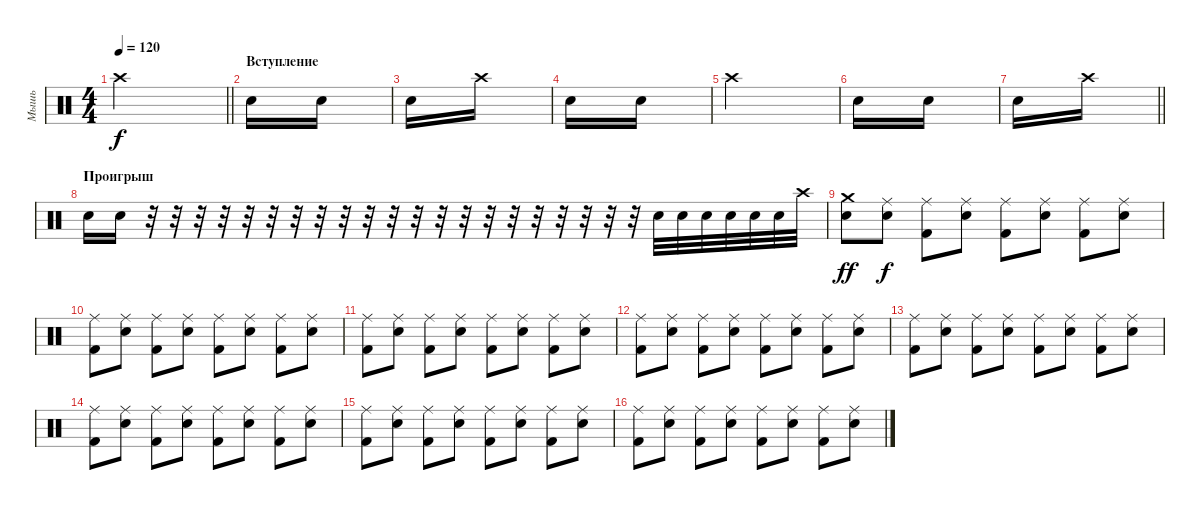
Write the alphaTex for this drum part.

\track ("Мышь" "Мышь") {instrument percussion}
\staff {score}
\articulation defaults
\ts (4 4)
\tempo 120
\clef neutral
\barLineRight lightlight
\ks c "Crash high (hit)".4{dy f}
|
\section ("" "Вступление")
"Snare (hit) 2".16 "Electric Snare (hit)".16 |
"Snare (hit) 2".16 "Crash high (hit)".16 |
"Electric Snare (hit)".16 "Electric Snare (hit)".16 |
"Crash high (hit)".4 |
"Snare (hit) 2".16 "Electric Snare (hit)".16 |
\barLineRight lightlight "Electric Snare (hit)".16 "Crash high (hit)".16
|
\section ("" "Проигрыш")
"Electric Snare (hit)".16 "Electric Snare (hit)".16 r.32 r.32 r.32 r.32 r.32 r.32 r.32 r.32 r.32 r.32 r.32 r.32 r.32 r.32 r.32 r.32 r.32 r.32 r.32 r.32 r.32 "Snare (hit) 2".32 "Snare (hit) 2".32 "Snare (hit) 2".32 "Electric Snare (hit)".32 "Electric Snare (hit)".32 "Electric Snare (hit)".32 "Crash high (hit)".32 |
("Snare (hit) 2" "Crash medium (hit)").8{dy ff} ("Snare (hit) 2" "Ride (middle)").8{dy f} ("Kick (hit) 2" "Ride (middle)").8 ("Snare (hit) 2" "Ride (middle)").8 ("Kick (hit) 2" "Ride (middle)").8 ("Snare (hit) 2" "Ride (middle)").8 ("Kick (hit) 2" "Ride (middle)").8 ("Snare (hit) 2" "Ride (middle)").8 |
("Kick (hit) 2" "Ride (middle)").8 ("Snare (hit) 2" "Ride (middle)").8 ("Kick (hit) 2" "Ride (middle)").8 ("Snare (hit) 2" "Ride (middle)").8 ("Kick (hit) 2" "Ride (middle)").8 ("Snare (hit) 2" "Ride (middle)").8 ("Kick (hit) 2" "Ride (middle)").8 ("Snare (hit) 2" "Ride (middle)").8 |
("Kick (hit) 2" "Ride (middle)").8 ("Snare (hit) 2" "Ride (middle)").8 ("Kick (hit) 2" "Ride (middle)").8 ("Snare (hit) 2" "Ride (middle)").8 ("Kick (hit) 2" "Ride (middle)").8 ("Snare (hit) 2" "Ride (middle)").8 ("Kick (hit) 2" "Ride (middle)").8 ("Snare (hit) 2" "Ride (middle)").8 |
("Kick (hit) 2" "Ride (middle)").8 ("Snare (hit) 2" "Ride (middle)").8 ("Kick (hit) 2" "Ride (middle)").8 ("Snare (hit) 2" "Ride (middle)").8 ("Kick (hit) 2" "Ride (middle)").8 ("Snare (hit) 2" "Ride (middle)").8 ("Kick (hit) 2" "Ride (middle)").8 ("Snare (hit) 2" "Ride (middle)").8 |
("Kick (hit) 2" "Ride (middle)").8 ("Snare (hit) 2" "Ride (middle)").8 ("Kick (hit) 2" "Ride (middle)").8 ("Snare (hit) 2" "Ride (middle)").8 ("Kick (hit) 2" "Ride (middle)").8 ("Snare (hit) 2" "Ride (middle)").8 ("Kick (hit) 2" "Ride (middle)").8 ("Snare (hit) 2" "Ride (middle)").8 |
("Kick (hit) 2" "Ride (middle)").8 ("Snare (hit) 2" "Ride (middle)").8 ("Kick (hit) 2" "Ride (middle)").8 ("Snare (hit) 2" "Ride (middle)").8 ("Kick (hit) 2" "Ride (middle)").8 ("Snare (hit) 2" "Ride (middle)").8 ("Kick (hit) 2" "Ride (middle)").8 ("Snare (hit) 2" "Ride (middle)").8 |
("Kick (hit) 2" "Ride (middle)").8 ("Snare (hit) 2" "Ride (middle)").8 ("Kick (hit) 2" "Ride (middle)").8 ("Snare (hit) 2" "Ride (middle)").8 ("Kick (hit) 2" "Ride (middle)").8 ("Snare (hit) 2" "Ride (middle)").8 ("Kick (hit) 2" "Ride (middle)").8 ("Snare (hit) 2" "Ride (middle)").8 |
("Kick (hit) 2" "Ride (middle)").8 ("Snare (hit) 2" "Ride (middle)").8 ("Kick (hit) 2" "Ride (middle)").8 ("Snare (hit) 2" "Ride (middle)").8 ("Kick (hit) 2" "Ride (middle)").8 ("Snare (hit) 2" "Ride (middle)").8 ("Kick (hit) 2" "Ride (middle)").8 ("Snare (hit) 2" "Ride (middle)").8
